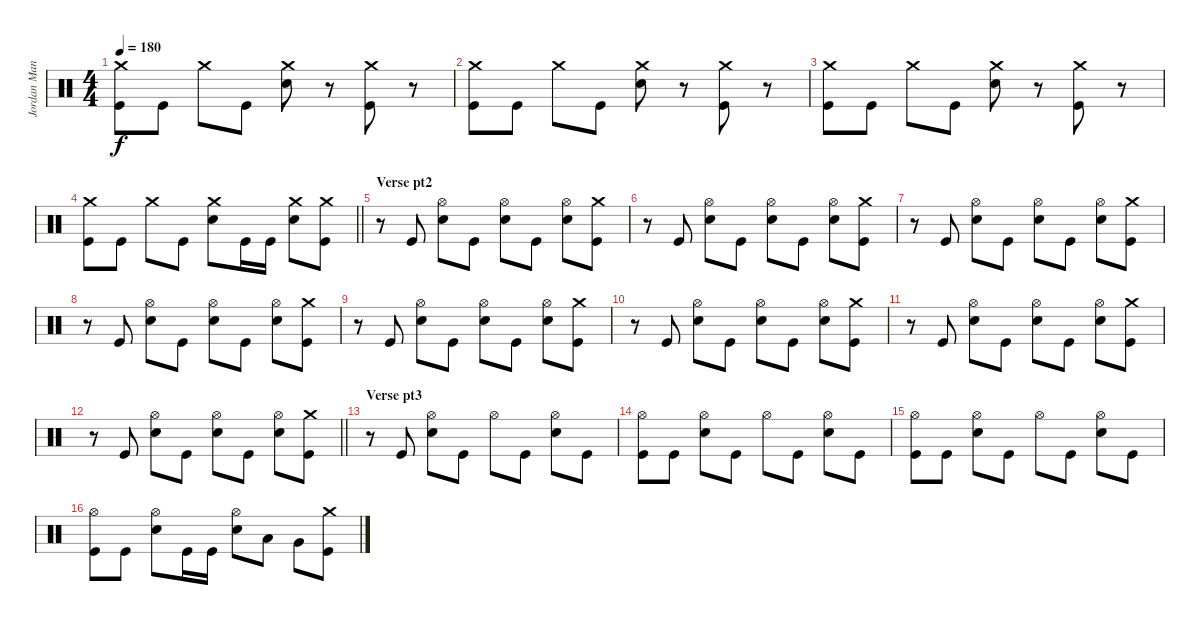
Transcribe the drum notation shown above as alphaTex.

\track ("Jordan Mancino" "Jordan Man") {instrument percussion}
\staff {score}
\articulation defaults
\ts (4 4)
\tempo 180
\clef neutral
\ks c
("Crash medium (hit)" "Kick (hit)").8{dy f} "Kick (hit)".8 "Crash medium (hit)".8 "Kick (hit)".8 ("Crash medium (hit)" "Snare (hit) 2").8 r.8 ("Crash medium (hit)" "Kick (hit)").8 r.8 |
("Crash medium (hit)" "Kick (hit)").8 "Kick (hit)".8 "Crash medium (hit)".8 "Kick (hit)".8 ("Crash medium (hit)" "Snare (hit) 2").8 r.8 ("Crash medium (hit)" "Kick (hit)").8 r.8 |
("Crash medium (hit)" "Kick (hit)").8 "Kick (hit)".8 "Crash medium (hit)".8 "Kick (hit)".8 ("Crash medium (hit)" "Snare (hit) 2").8 r.8 ("Crash medium (hit)" "Kick (hit)").8 r.8 |
\barLineRight lightlight
("Crash medium (hit)" "Kick (hit)").8 "Kick (hit)".8 "Crash medium (hit)".8 "Kick (hit)".8 ("Crash medium (hit)" "Snare (hit) 2").8 "Kick (hit)".16 "Kick (hit)".16 ("Crash medium (hit)" "Snare (hit) 2").8 ("Crash medium (hit)" "Kick (hit)").8 |
\section ("" "Verse pt2")
r.8 "Kick (hit)".8 ("Hi-Hat (open)" "Snare (hit) 2").8 "Kick (hit)".8 ("Hi-Hat (open)" "Snare (hit) 2").8 "Kick (hit)".8 ("Hi-Hat (open)" "Snare (hit) 2").8 ("Crash medium (hit)" "Kick (hit)").8 |
r.8 "Kick (hit)".8 ("Hi-Hat (open)" "Snare (hit) 2").8 "Kick (hit)".8 ("Hi-Hat (open)" "Snare (hit) 2").8 "Kick (hit)".8 ("Hi-Hat (open)" "Snare (hit) 2").8 ("Crash medium (hit)" "Kick (hit)").8 |
r.8 "Kick (hit)".8 ("Hi-Hat (open)" "Snare (hit) 2").8 "Kick (hit)".8 ("Hi-Hat (open)" "Snare (hit) 2").8 "Kick (hit)".8 ("Hi-Hat (open)" "Snare (hit) 2").8 ("Crash medium (hit)" "Kick (hit)").8 |
r.8 "Kick (hit)".8 ("Hi-Hat (open)" "Snare (hit) 2").8 "Kick (hit)".8 ("Hi-Hat (open)" "Snare (hit) 2").8 "Kick (hit)".8 ("Hi-Hat (open)" "Snare (hit) 2").8 ("Crash medium (hit)" "Kick (hit)").8 |
r.8 "Kick (hit)".8 ("Hi-Hat (open)" "Snare (hit) 2").8 "Kick (hit)".8 ("Hi-Hat (open)" "Snare (hit) 2").8 "Kick (hit)".8 ("Hi-Hat (open)" "Snare (hit) 2").8 ("Crash medium (hit)" "Kick (hit)").8 |
r.8 "Kick (hit)".8 ("Hi-Hat (open)" "Snare (hit) 2").8 "Kick (hit)".8 ("Hi-Hat (open)" "Snare (hit) 2").8 "Kick (hit)".8 ("Hi-Hat (open)" "Snare (hit) 2").8 ("Crash medium (hit)" "Kick (hit)").8 |
r.8 "Kick (hit)".8 ("Hi-Hat (open)" "Snare (hit) 2").8 "Kick (hit)".8 ("Hi-Hat (open)" "Snare (hit) 2").8 "Kick (hit)".8 ("Hi-Hat (open)" "Snare (hit) 2").8 ("Crash medium (hit)" "Kick (hit)").8 |
\barLineRight lightlight
r.8 "Kick (hit)".8 ("Hi-Hat (open)" "Snare (hit) 2").8 "Kick (hit)".8 ("Hi-Hat (open)" "Snare (hit) 2").8 "Kick (hit)".8 ("Hi-Hat (open)" "Snare (hit) 2").8 ("Crash medium (hit)" "Kick (hit)").8 |
\section ("" "Verse pt3")
r.8 "Kick (hit)".8 ("Hi-Hat (open)" "Snare (hit) 2").8 "Kick (hit)".8 "Hi-Hat (open)".8 "Kick (hit)".8 ("Hi-Hat (open)" "Snare (hit) 2").8 "Kick (hit)".8 |
("Hi-Hat (open)" "Kick (hit)").8 "Kick (hit)".8 ("Hi-Hat (open)" "Snare (hit) 2").8 "Kick (hit)".8 "Hi-Hat (open)".8 "Kick (hit)".8 ("Hi-Hat (open)" "Snare (hit) 2").8 "Kick (hit)".8 |
("Hi-Hat (open)" "Kick (hit)").8 "Kick (hit)".8 ("Hi-Hat (open)" "Snare (hit) 2").8 "Kick (hit)".8 "Hi-Hat (open)".8 "Kick (hit)".8 ("Hi-Hat (open)" "Snare (hit) 2").8 "Kick (hit)".8 |
("Hi-Hat (open)" "Kick (hit)").8 "Kick (hit)".8 ("Hi-Hat (open)" "Snare (hit) 2").8 "Kick (hit)".16 "Kick (hit)".16 ("Hi-Hat (open)" "Snare (hit) 2").8 "Low Tom (hit)".8 "Very Low Tom (hit)".8 ("Crash medium (hit)" "Kick (hit)").8
